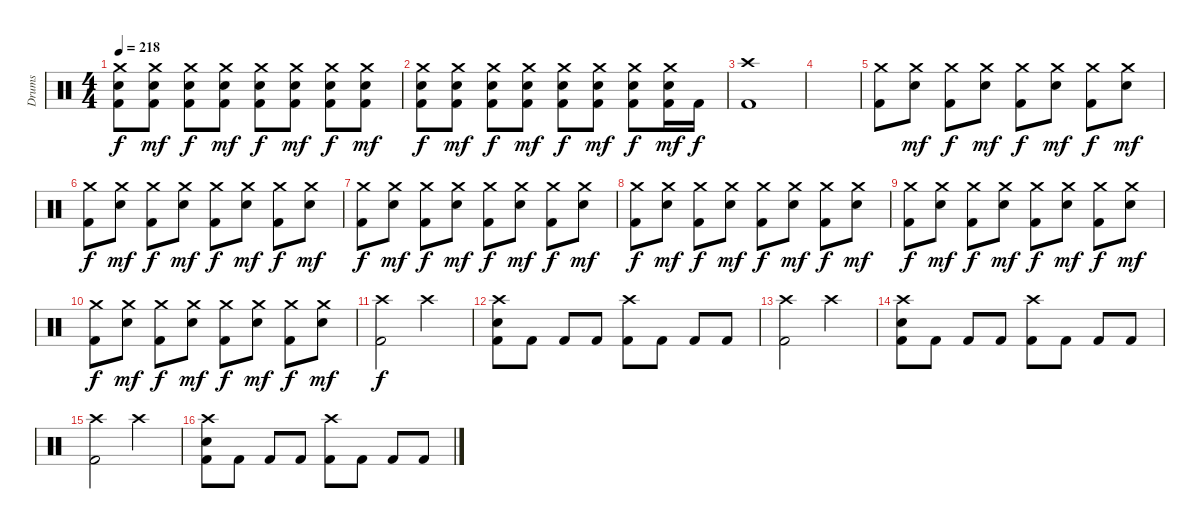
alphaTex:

\track ("Drums" "Drums") {instrument percussion}
\staff {score}
\articulation defaults
\ts (4 4)
\tempo 218
\clef neutral
\ks c
("Crash medium (hit)" "Electric Snare (hit)" "Kick (hit) 2").8{dy f} ("Crash medium (hit)" "Electric Snare (hit)" "Kick (hit) 2").8{dy mf} ("Crash medium (hit)" "Electric Snare (hit)" "Kick (hit) 2").8{dy f} ("Crash medium (hit)" "Electric Snare (hit)" "Kick (hit) 2").8{dy mf} ("Crash medium (hit)" "Electric Snare (hit)" "Kick (hit) 2").8{dy f} ("Crash medium (hit)" "Electric Snare (hit)" "Kick (hit) 2").8{dy mf} ("Crash medium (hit)" "Electric Snare (hit)" "Kick (hit) 2").8{dy f} ("Crash medium (hit)" "Electric Snare (hit)" "Kick (hit) 2").8{dy mf} |
("Crash medium (hit)" "Electric Snare (hit)" "Kick (hit) 2").8{dy f} ("Crash medium (hit)" "Electric Snare (hit)" "Kick (hit) 2").8{dy mf} ("Crash medium (hit)" "Electric Snare (hit)" "Kick (hit) 2").8{dy f} ("Crash medium (hit)" "Electric Snare (hit)" "Kick (hit) 2").8{dy mf} ("Crash medium (hit)" "Electric Snare (hit)" "Kick (hit) 2").8{dy f} ("Crash medium (hit)" "Electric Snare (hit)" "Kick (hit) 2").8{dy mf} ("Crash medium (hit)" "Electric Snare (hit)" "Kick (hit) 2").8{dy f} ("Crash medium (hit)" "Electric Snare (hit)" "Kick (hit) 2").16{dy mf} "Kick (hit) 2".16{dy f} |
("Crash high (hit)" "Kick (hit) 2").1 |
|
("Crash medium (hit)" "Kick (hit) 2").8 ("Crash medium (hit)" "Electric Snare (hit)").8{dy mf} ("Crash medium (hit)" "Kick (hit) 2").8{dy f} ("Crash medium (hit)" "Electric Snare (hit)").8{dy mf} ("Crash medium (hit)" "Kick (hit) 2").8{dy f} ("Crash medium (hit)" "Electric Snare (hit)").8{dy mf} ("Crash medium (hit)" "Kick (hit) 2").8{dy f} ("Crash medium (hit)" "Electric Snare (hit)").8{dy mf} |
("Crash medium (hit)" "Kick (hit) 2").8{dy f} ("Crash medium (hit)" "Electric Snare (hit)").8{dy mf} ("Crash medium (hit)" "Kick (hit) 2").8{dy f} ("Crash medium (hit)" "Electric Snare (hit)").8{dy mf} ("Crash medium (hit)" "Kick (hit) 2").8{dy f} ("Crash medium (hit)" "Electric Snare (hit)").8{dy mf} ("Crash medium (hit)" "Kick (hit) 2").8{dy f} ("Crash medium (hit)" "Electric Snare (hit)").8{dy mf} |
("Crash medium (hit)" "Kick (hit) 2").8{dy f} ("Crash medium (hit)" "Electric Snare (hit)").8{dy mf} ("Crash medium (hit)" "Kick (hit) 2").8{dy f} ("Crash medium (hit)" "Electric Snare (hit)").8{dy mf} ("Crash medium (hit)" "Kick (hit) 2").8{dy f} ("Crash medium (hit)" "Electric Snare (hit)").8{dy mf} ("Crash medium (hit)" "Kick (hit) 2").8{dy f} ("Crash medium (hit)" "Electric Snare (hit)").8{dy mf} |
("Crash medium (hit)" "Kick (hit) 2").8{dy f} ("Crash medium (hit)" "Electric Snare (hit)").8{dy mf} ("Crash medium (hit)" "Kick (hit) 2").8{dy f} ("Crash medium (hit)" "Electric Snare (hit)").8{dy mf} ("Crash medium (hit)" "Kick (hit) 2").8{dy f} ("Crash medium (hit)" "Electric Snare (hit)").8{dy mf} ("Crash medium (hit)" "Kick (hit) 2").8{dy f} ("Crash medium (hit)" "Electric Snare (hit)").8{dy mf} |
("Crash medium (hit)" "Kick (hit) 2").8{dy f} ("Crash medium (hit)" "Electric Snare (hit)").8{dy mf} ("Crash medium (hit)" "Kick (hit) 2").8{dy f} ("Crash medium (hit)" "Electric Snare (hit)").8{dy mf} ("Crash medium (hit)" "Kick (hit) 2").8{dy f} ("Crash medium (hit)" "Electric Snare (hit)").8{dy mf} ("Crash medium (hit)" "Kick (hit) 2").8{dy f} ("Crash medium (hit)" "Electric Snare (hit)").8{dy mf} |
("Crash medium (hit)" "Kick (hit) 2").8{dy f} ("Crash medium (hit)" "Electric Snare (hit)").8{dy mf} ("Crash medium (hit)" "Kick (hit) 2").8{dy f} ("Crash medium (hit)" "Electric Snare (hit)").8{dy mf} ("Crash medium (hit)" "Kick (hit) 2").8{dy f} ("Crash medium (hit)" "Electric Snare (hit)").8{dy mf} ("Crash medium (hit)" "Kick (hit) 2").8{dy f} ("Crash medium (hit)" "Electric Snare (hit)").8{dy mf} |
("Crash high (hit)" "Kick (hit) 2").2{dy f} "Crash high (hit)".2 |
("Crash high (hit)" "Electric Snare (hit)" "Kick (hit) 2").8 "Kick (hit) 2".8 "Kick (hit) 2".8 "Kick (hit) 2".8 ("Crash high (hit)" "Kick (hit) 2").8 "Kick (hit) 2".8 "Kick (hit) 2".8 "Kick (hit) 2".8 |
("Crash high (hit)" "Kick (hit) 2").2 "Crash high (hit)".2 |
("Crash high (hit)" "Electric Snare (hit)" "Kick (hit) 2").8 "Kick (hit) 2".8 "Kick (hit) 2".8 "Kick (hit) 2".8 ("Crash high (hit)" "Kick (hit) 2").8 "Kick (hit) 2".8 "Kick (hit) 2".8 "Kick (hit) 2".8 |
("Crash high (hit)" "Kick (hit) 2").2 "Crash high (hit)".2 |
("Crash high (hit)" "Electric Snare (hit)" "Kick (hit) 2").8 "Kick (hit) 2".8 "Kick (hit) 2".8 "Kick (hit) 2".8 ("Crash high (hit)" "Kick (hit) 2").8 "Kick (hit) 2".8 "Kick (hit) 2".8 "Kick (hit) 2".8
